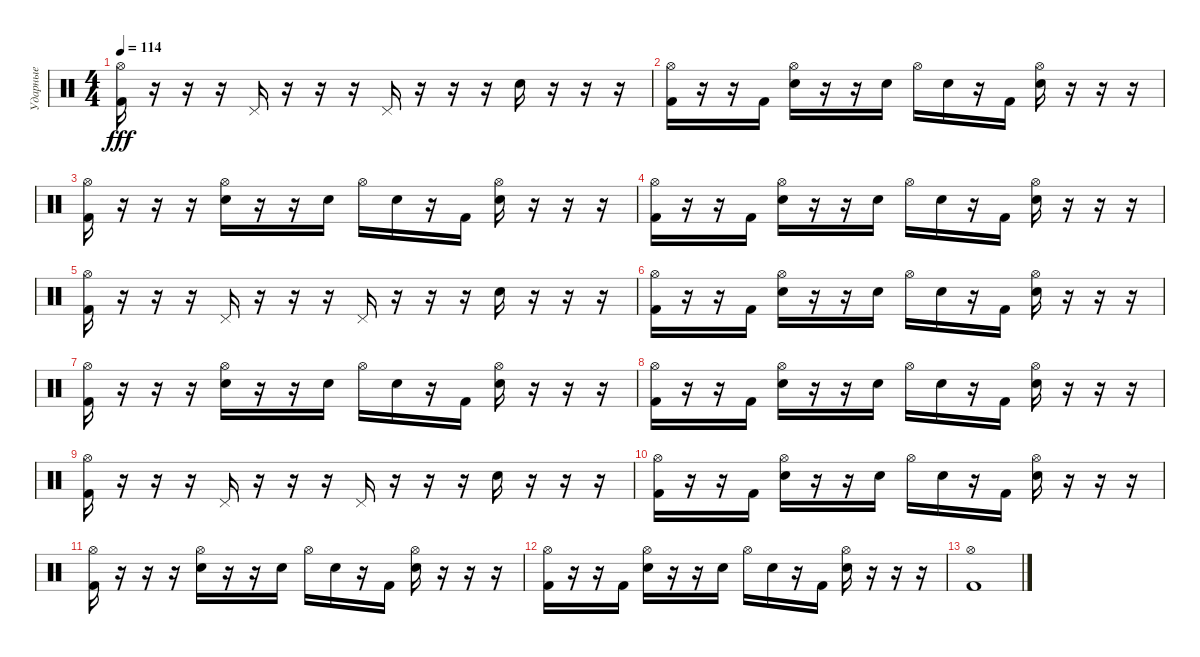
\track ("Ударные" "Ударные") {instrument percussion}
\staff {score}
\articulation defaults
\ts (4 4)
\tempo 114
\clef neutral
\ks c
("Kick (hit) 2" "Hi-Hat (open)").16{dy fff} r.16 r.16 r.16 "Pedal Hi-Hat (hit)".16 r.16 r.16 r.16 "Pedal Hi-Hat (hit)".16 r.16 r.16 r.16 "Snare (hit) 2".16 r.16 r.16 r.16 |
("Kick (hit) 2" "Hi-Hat (open)").16 r.16 r.16 "Kick (hit) 2".16 ("Electric Snare (hit)" "Hi-Hat (open)").16 r.16 r.16 "Electric Snare (hit)".16 "Hi-Hat (open)".16 "Electric Snare (hit)".16 r.16 "Kick (hit) 2".16 ("Electric Snare (hit)" "Hi-Hat (open)").16 r.16 r.16 r.16 |
("Kick (hit) 2" "Hi-Hat (open)").16 r.16 r.16 r.16 ("Electric Snare (hit)" "Hi-Hat (open)").16 r.16 r.16 "Electric Snare (hit)".16 "Hi-Hat (open)".16 "Electric Snare (hit)".16 r.16 "Kick (hit) 2".16 ("Electric Snare (hit)" "Hi-Hat (open)").16 r.16 r.16 r.16 |
("Kick (hit) 2" "Hi-Hat (open)").16 r.16 r.16 "Kick (hit) 2".16 ("Electric Snare (hit)" "Hi-Hat (open)").16 r.16 r.16 "Electric Snare (hit)".16 "Hi-Hat (open)".16 "Electric Snare (hit)".16 r.16 "Kick (hit) 2".16 ("Electric Snare (hit)" "Hi-Hat (open)").16 r.16 r.16 r.16 |
("Kick (hit) 2" "Hi-Hat (open)").16 r.16 r.16 r.16 "Pedal Hi-Hat (hit)".16 r.16 r.16 r.16 "Pedal Hi-Hat (hit)".16 r.16 r.16 r.16 "Snare (hit) 2".16 r.16 r.16 r.16 |
("Kick (hit) 2" "Hi-Hat (open)").16 r.16 r.16 "Kick (hit) 2".16 ("Electric Snare (hit)" "Hi-Hat (open)").16 r.16 r.16 "Electric Snare (hit)".16 "Hi-Hat (open)".16 "Electric Snare (hit)".16 r.16 "Kick (hit) 2".16 ("Electric Snare (hit)" "Hi-Hat (open)").16 r.16 r.16 r.16 |
("Kick (hit) 2" "Hi-Hat (open)").16 r.16 r.16 r.16 ("Electric Snare (hit)" "Hi-Hat (open)").16 r.16 r.16 "Electric Snare (hit)".16 "Hi-Hat (open)".16 "Electric Snare (hit)".16 r.16 "Kick (hit) 2".16 ("Electric Snare (hit)" "Hi-Hat (open)").16 r.16 r.16 r.16 |
("Kick (hit) 2" "Hi-Hat (open)").16 r.16 r.16 "Kick (hit) 2".16 ("Electric Snare (hit)" "Hi-Hat (open)").16 r.16 r.16 "Electric Snare (hit)".16 "Hi-Hat (open)".16 "Electric Snare (hit)".16 r.16 "Kick (hit) 2".16 ("Electric Snare (hit)" "Hi-Hat (open)").16 r.16 r.16 r.16 |
("Kick (hit) 2" "Hi-Hat (open)").16 r.16 r.16 r.16 "Pedal Hi-Hat (hit)".16 r.16 r.16 r.16 "Pedal Hi-Hat (hit)".16 r.16 r.16 r.16 "Snare (hit) 2".16 r.16 r.16 r.16 |
("Kick (hit) 2" "Hi-Hat (open)").16 r.16 r.16 "Kick (hit) 2".16 ("Electric Snare (hit)" "Hi-Hat (open)").16 r.16 r.16 "Electric Snare (hit)".16 "Hi-Hat (open)".16 "Electric Snare (hit)".16 r.16 "Kick (hit) 2".16 ("Electric Snare (hit)" "Hi-Hat (open)").16 r.16 r.16 r.16 |
("Kick (hit) 2" "Hi-Hat (open)").16 r.16 r.16 r.16 ("Electric Snare (hit)" "Hi-Hat (open)").16 r.16 r.16 "Electric Snare (hit)".16 "Hi-Hat (open)".16 "Electric Snare (hit)".16 r.16 "Kick (hit) 2".16 ("Electric Snare (hit)" "Hi-Hat (open)").16 r.16 r.16 r.16 |
("Kick (hit) 2" "Hi-Hat (open)").16 r.16 r.16 "Kick (hit) 2".16 ("Electric Snare (hit)" "Hi-Hat (open)").16 r.16 r.16 "Electric Snare (hit)".16 "Hi-Hat (open)".16 "Electric Snare (hit)".16 r.16 "Kick (hit) 2".16 ("Electric Snare (hit)" "Hi-Hat (open)").16 r.16 r.16 r.16 |
("Kick (hit) 2" "Hi-Hat (open)").1
